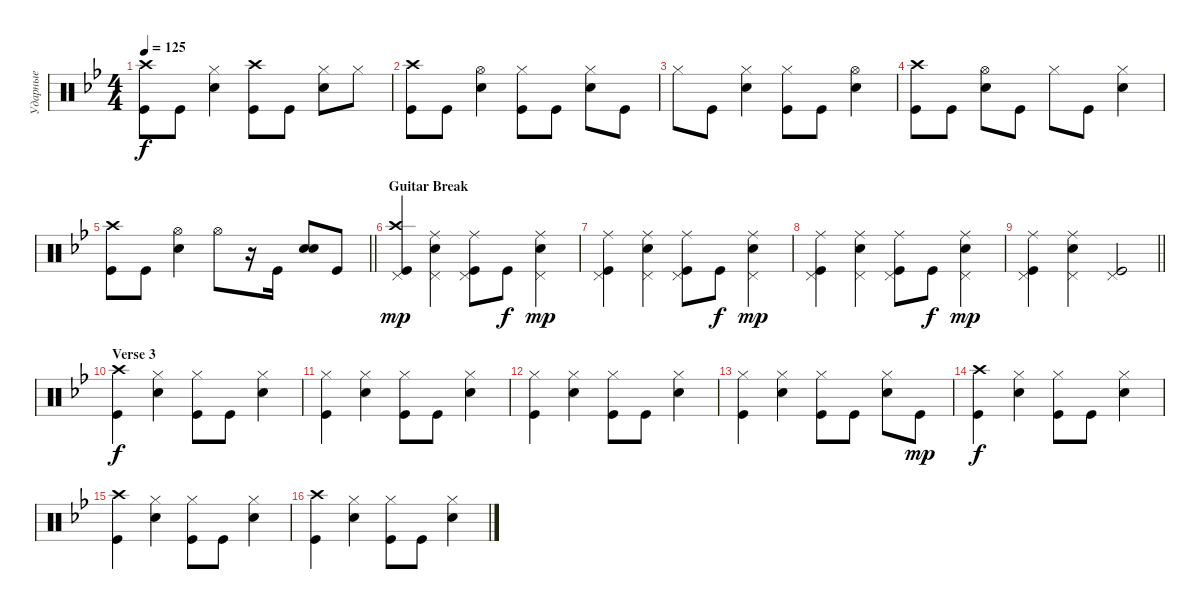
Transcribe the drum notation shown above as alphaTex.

\track ("Ударные" "Ударные") {instrument percussion}
\staff {score}
\articulation defaults
\ts (4 4)
\tempo 125
\clef neutral
\ks gminor
("Kick (hit)" "Crash high (hit)").8{dy f} "Kick (hit)".8 ("Snare (hit) 2" "Hi-Hat (closed)").4 ("Kick (hit)" "Crash high (hit)").8 "Kick (hit)".8 ("Snare (hit) 2" "Hi-Hat (closed)").8 "Hi-Hat (closed)".8 |
("Kick (hit)" "Crash high (hit)").8 "Kick (hit)".8 ("Snare (hit) 2" "Hi-Hat (open)").4 ("Kick (hit)" "Hi-Hat (closed)").8 "Kick (hit)".8 ("Snare (hit) 2" "Hi-Hat (closed)").8 "Kick (hit)".8 |
"Hi-Hat (closed)".8 "Kick (hit)".8 ("Snare (hit) 2" "Hi-Hat (closed)").4 ("Kick (hit)" "Hi-Hat (closed)").8 "Kick (hit)".8 ("Snare (hit) 2" "Hi-Hat (open)").4 |
("Kick (hit)" "Crash high (hit)").8 "Kick (hit)".8 ("Snare (hit) 2" "Hi-Hat (open)").8 "Kick (hit)".8 "Hi-Hat (closed)".8 "Kick (hit)".8 ("Snare (hit) 2" "Hi-Hat (closed)").4 |
\barLineRight lightlight
("Kick (hit)" "Crash high (hit)").8 "Kick (hit)".8 ("Snare (hit) 2" "Hi-Hat (open)").4 "Hi-Hat (open)".8 r.16 "Kick (hit)".16 ("Snare (hit) 2" "Snare (hit) 2").8{bd 240} "Kick (hit)".8 |
\section ("" "Guitar Break")
("Kick (hit)" "Pedal Hi-Hat (hit)" "Crash high (hit)").4{dy mp} ("Ride (middle)" "Snare (hit) 2" "Pedal Hi-Hat (hit)").4 ("Ride (middle)" "Kick (hit)" "Pedal Hi-Hat (hit)").8 "Kick (hit)".8{dy f} ("Ride (middle)" "Snare (hit) 2" "Pedal Hi-Hat (hit)").4{dy mp} |
("Kick (hit)" "Ride (middle)" "Pedal Hi-Hat (hit)").4 ("Ride (middle)" "Snare (hit) 2" "Pedal Hi-Hat (hit)").4 ("Ride (middle)" "Kick (hit)" "Pedal Hi-Hat (hit)").8 "Kick (hit)".8{dy f} ("Ride (middle)" "Snare (hit) 2" "Pedal Hi-Hat (hit)").4{dy mp} |
("Kick (hit)" "Ride (middle)" "Pedal Hi-Hat (hit)").4 ("Ride (middle)" "Snare (hit) 2" "Pedal Hi-Hat (hit)").4 ("Ride (middle)" "Kick (hit)" "Pedal Hi-Hat (hit)").8 "Kick (hit)".8{dy f} ("Ride (middle)" "Snare (hit) 2" "Pedal Hi-Hat (hit)").4{dy mp} |
\barLineRight lightlight
("Kick (hit)" "Ride (middle)" "Pedal Hi-Hat (hit)").4 ("Ride (middle)" "Snare (hit) 2" "Pedal Hi-Hat (hit)").4 ("Pedal Hi-Hat (hit)" "Kick (hit)").2 |
\section ("" "Verse 3")
("Kick (hit)" "Crash high (hit)").4{dy f} ("Hi-Hat (closed)" "Snare (hit) 2").4 ("Hi-Hat (closed)" "Kick (hit)").8 "Kick (hit)".8 ("Hi-Hat (closed)" "Snare (hit) 2").4 |
("Kick (hit)" "Hi-Hat (closed)").4 ("Hi-Hat (closed)" "Snare (hit) 2").4 ("Hi-Hat (closed)" "Kick (hit)").8 "Kick (hit)".8 ("Hi-Hat (closed)" "Snare (hit) 2").4 |
("Kick (hit)" "Hi-Hat (closed)").4 ("Hi-Hat (closed)" "Snare (hit) 2").4 ("Hi-Hat (closed)" "Kick (hit)").8 "Kick (hit)".8 ("Hi-Hat (closed)" "Snare (hit) 2").4 |
("Kick (hit)" "Hi-Hat (closed)").4 ("Hi-Hat (closed)" "Snare (hit) 2").4 ("Hi-Hat (closed)" "Kick (hit)").8 "Kick (hit)".8 ("Hi-Hat (closed)" "Snare (hit) 2").8 "Kick (hit)".8{dy mp} |
("Kick (hit)" "Crash high (hit)").4{dy f} ("Hi-Hat (closed)" "Snare (hit) 2").4 ("Hi-Hat (closed)" "Kick (hit)").8 "Kick (hit)".8 ("Hi-Hat (closed)" "Snare (hit) 2").4 |
("Kick (hit)" "Crash high (hit)").4 ("Hi-Hat (closed)" "Snare (hit) 2").4 ("Hi-Hat (closed)" "Kick (hit)").8 "Kick (hit)".8 ("Hi-Hat (closed)" "Snare (hit) 2").4 |
("Kick (hit)" "Crash high (hit)").4 ("Hi-Hat (closed)" "Snare (hit) 2").4 ("Hi-Hat (closed)" "Kick (hit)").8 "Kick (hit)".8 ("Hi-Hat (closed)" "Snare (hit) 2").4
